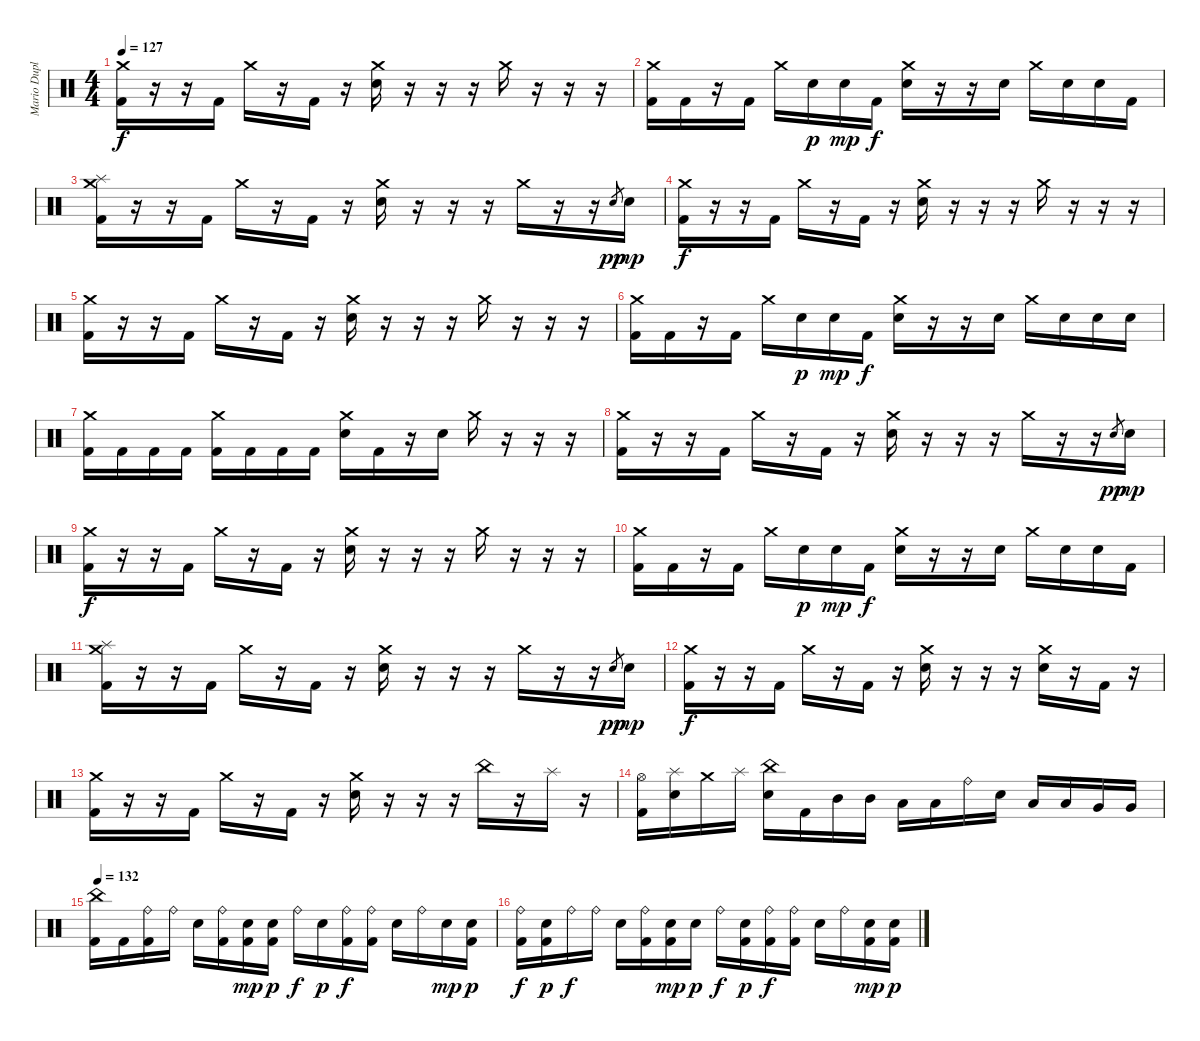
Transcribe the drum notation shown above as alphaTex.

\track ("Mario Duplantier" "Mario Dupl") {instrument percussion}
\staff {score}
\articulation defaults
\ts (4 4)
\tempo 127
\clef neutral
\ks c
("Crash medium (hit)" "Kick (hit) 2").16{dy f} r.16 r.16 "Kick (hit) 2".16 "Crash medium (hit)".16 r.16 "Kick (hit) 2".16 r.16 ("Crash medium (hit)" "Electric Snare (hit)").16 r.16 r.16 r.16 "Crash medium (hit)".16 r.16 r.16 r.16 |
("Crash medium (hit)" "Kick (hit) 2").16 "Kick (hit) 2".16 r.16 "Kick (hit) 2".16 "Crash medium (hit)".16 "Electric Snare (hit)".16{dy p} "Electric Snare (hit)".16{dy mp} "Kick (hit) 2".16{dy f} ("Crash medium (hit)" "Electric Snare (hit)").16 r.16 r.16 "Electric Snare (hit)".16 "Crash medium (hit)".16 "Electric Snare (hit)".16 "Electric Snare (hit)".16 "Kick (hit) 2".16 |
("Crash medium (hit)" "Splash (hit)" "Kick (hit) 2").16 r.16 r.16 "Kick (hit) 2".16 "Crash medium (hit)".16 r.16 "Kick (hit) 2".16 r.16 ("Crash medium (hit)" "Electric Snare (hit)").16 r.16 r.16 r.16 "Crash medium (hit)".16 r.16 r.16 "Electric Snare (hit)".8{gr dy pp} "Electric Snare (hit)".16{dy mp} |
("Crash medium (hit)" "Kick (hit) 2").16{dy f} r.16 r.16 "Kick (hit) 2".16 "Crash medium (hit)".16 r.16 "Kick (hit) 2".16 r.16 ("Crash medium (hit)" "Electric Snare (hit)").16 r.16 r.16 r.16 "Crash medium (hit)".16 r.16 r.16 r.16 |
("Crash medium (hit)" "Kick (hit) 2").16 r.16 r.16 "Kick (hit) 2".16 "Crash medium (hit)".16 r.16 "Kick (hit) 2".16 r.16 ("Crash medium (hit)" "Electric Snare (hit)").16 r.16 r.16 r.16 "Crash medium (hit)".16 r.16 r.16 r.16 |
("Crash medium (hit)" "Kick (hit) 2").16 "Kick (hit) 2".16 r.16 "Kick (hit) 2".16 "Crash medium (hit)".16 "Electric Snare (hit)".16{dy p} "Electric Snare (hit)".16{dy mp} "Kick (hit) 2".16{dy f} ("Crash medium (hit)" "Electric Snare (hit)").16 r.16 r.16 "Electric Snare (hit)".16 "Crash medium (hit)".16 "Electric Snare (hit)".16 "Electric Snare (hit)".16 "Electric Snare (hit)".16 |
("Crash medium (hit)" "Kick (hit) 2").16 "Kick (hit) 2".16 "Kick (hit) 2".16 "Kick (hit) 2".16 ("Crash medium (hit)" "Kick (hit) 2").16 "Kick (hit) 2".16 "Kick (hit) 2".16 "Kick (hit) 2".16 ("Crash medium (hit)" "Electric Snare (hit)").16 "Kick (hit) 2".16 r.16 "Electric Snare (hit)".16 "Crash medium (hit)".16 r.16 r.16 r.16 |
("Crash medium (hit)" "Kick (hit) 2").16 r.16 r.16 "Kick (hit) 2".16 "Crash medium (hit)".16 r.16 "Kick (hit) 2".16 r.16 ("Crash medium (hit)" "Electric Snare (hit)").16 r.16 r.16 r.16 "Crash medium (hit)".16 r.16 r.16 "Electric Snare (hit)".8{gr dy pp} "Electric Snare (hit)".16{dy mp} |
("Crash medium (hit)" "Kick (hit) 2").16{dy f} r.16 r.16 "Kick (hit) 2".16 "Crash medium (hit)".16 r.16 "Kick (hit) 2".16 r.16 ("Crash medium (hit)" "Electric Snare (hit)").16 r.16 r.16 r.16 "Crash medium (hit)".16 r.16 r.16 r.16 |
("Crash medium (hit)" "Kick (hit) 2").16 "Kick (hit) 2".16 r.16 "Kick (hit) 2".16 "Crash medium (hit)".16 "Electric Snare (hit)".16{dy p} "Electric Snare (hit)".16{dy mp} "Kick (hit) 2".16{dy f} ("Crash medium (hit)" "Electric Snare (hit)").16 r.16 r.16 "Electric Snare (hit)".16 "Crash medium (hit)".16 "Electric Snare (hit)".16 "Electric Snare (hit)".16 "Kick (hit) 2".16 |
("Crash medium (hit)" "Splash (hit)" "Kick (hit) 2").16 r.16 r.16 "Kick (hit) 2".16 "Crash medium (hit)".16 r.16 "Kick (hit) 2".16 r.16 ("Crash medium (hit)" "Electric Snare (hit)").16 r.16 r.16 r.16 "Crash medium (hit)".16 r.16 r.16 "Electric Snare (hit)".8{gr dy pp} "Electric Snare (hit)".16{dy mp} |
("Crash medium (hit)" "Kick (hit) 2").16{dy f} r.16 r.16 "Kick (hit) 2".16 "Crash medium (hit)".16 r.16 "Kick (hit) 2".16 r.16 ("Crash medium (hit)" "Electric Snare (hit)").16 r.16 r.16 r.16 ("Crash medium (hit)" "Electric Snare (hit)").16 r.16 "Kick (hit) 2".16 r.16 |
("Crash medium (hit)" "Kick (hit) 2").16 r.16 r.16 "Kick (hit) 2".16 "Crash medium (hit)".16 r.16 "Kick (hit) 2".16 r.16 ("Crash medium (hit)" "Electric Snare (hit)").16 r.16 r.16 r.16 "China (hit)".16 r.16 "Splash (hit)".16 r.16 |
("Hi-Hat (open)" "Kick (hit) 2").16 ("Splash (hit)" "Electric Snare (hit)").16 "Crash medium (hit)".16 "Splash (hit)".16 ("China (hit)" "Electric Snare (hit)").16 "Kick (hit) 2".16 "Mid Tom (hit)".16 "Mid Tom (hit)".16 "Low Tom (hit)".16 "Low Tom (hit)".16 "Ride (bell)".16 "Electric Snare (hit)".16 "Low Tom (hit)".16 "Low Tom (hit)".16 "Very Low Tom (hit)".16 "Very Low Tom (hit)".16 |
\tempo 132
("China (hit)" "Kick (hit) 2").16 "Kick (hit) 2".16 ("Ride (bell)" "Kick (hit) 2").16 "Ride (bell)".16 "Electric Snare (hit)".16 ("Ride (bell)" "Kick (hit) 2").16 ("Electric Snare (hit)" "Kick (hit) 2").16{dy mp} ("Electric Snare (hit)" "Kick (hit) 2").16{dy p} "Ride (bell)".16{dy f} "Electric Snare (hit)".16{dy p} ("Ride (bell)" "Kick (hit) 2").16{dy f} ("Ride (bell)" "Kick (hit) 2").16 "Electric Snare (hit)".16 "Ride (bell)".16 "Electric Snare (hit)".16{dy mp} ("Electric Snare (hit)" "Kick (hit) 2").16{dy p} |
("Ride (bell)" "Kick (hit) 2").16{dy f} ("Electric Snare (hit)" "Kick (hit) 2").16{dy p} "Ride (bell)".16{dy f} "Ride (bell)".16 "Electric Snare (hit)".16 ("Ride (bell)" "Kick (hit) 2").16 ("Electric Snare (hit)" "Kick (hit) 2").16{dy mp} "Electric Snare (hit)".16{dy p} "Ride (bell)".16{dy f} ("Electric Snare (hit)" "Kick (hit) 2").16{dy p} ("Ride (bell)" "Kick (hit) 2").16{dy f} ("Ride (bell)" "Kick (hit) 2").16 "Electric Snare (hit)".16 "Ride (bell)".16 ("Electric Snare (hit)" "Kick (hit) 2").16{dy mp} ("Electric Snare (hit)" "Kick (hit) 2").16{dy p}
